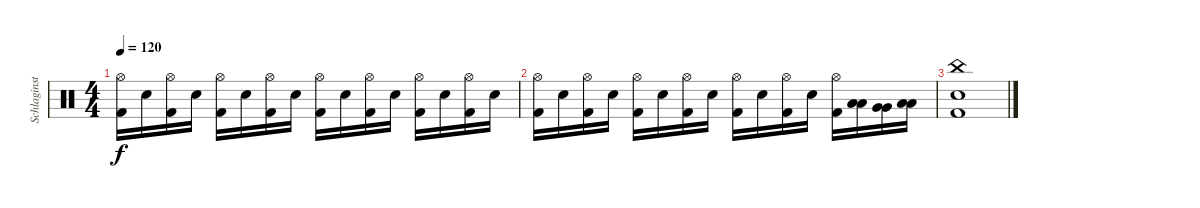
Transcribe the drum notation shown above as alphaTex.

\track ("Schlaginstrumente - Auswahl" "Schlaginst") {instrument percussion}
\staff {score}
\articulation defaults
\ts (4 4)
\tempo 120
\clef neutral
\ks c
("Hi-Hat (open)" "Kick (hit) 2").16{dy f} "Electric Snare (hit)".16 ("Hi-Hat (open)" "Kick (hit) 2").16 "Electric Snare (hit)".16 ("Hi-Hat (open)" "Kick (hit) 2").16 "Electric Snare (hit)".16 ("Hi-Hat (open)" "Kick (hit) 2").16 "Electric Snare (hit)".16 ("Hi-Hat (open)" "Kick (hit) 2").16 "Electric Snare (hit)".16 ("Hi-Hat (open)" "Kick (hit) 2").16 "Electric Snare (hit)".16 ("Hi-Hat (open)" "Kick (hit) 2").16 "Electric Snare (hit)".16 ("Hi-Hat (open)" "Kick (hit) 2").16 "Electric Snare (hit)".16 |
("Hi-Hat (open)" "Kick (hit) 2").16 "Electric Snare (hit)".16 ("Hi-Hat (open)" "Kick (hit) 2").16 "Electric Snare (hit)".16 ("Hi-Hat (open)" "Kick (hit) 2").16 "Electric Snare (hit)".16 ("Hi-Hat (open)" "Kick (hit) 2").16 "Electric Snare (hit)".16 ("Hi-Hat (open)" "Kick (hit) 2").16 "Electric Snare (hit)".16 ("Hi-Hat (open)" "Kick (hit) 2").16 "Electric Snare (hit)".16 ("Hi-Hat (open)" "Kick (hit) 2").16 ("Low Tom (hit)" "Low Tom (hit)").16 ("Very Low Tom (hit)" "Very Low Tom (hit)").16 ("Low Floor Tom (hit)" "Low Floor Tom (hit)").16 |
("China (hit)" "Kick (hit) 2" "Electric Snare (hit)").1
